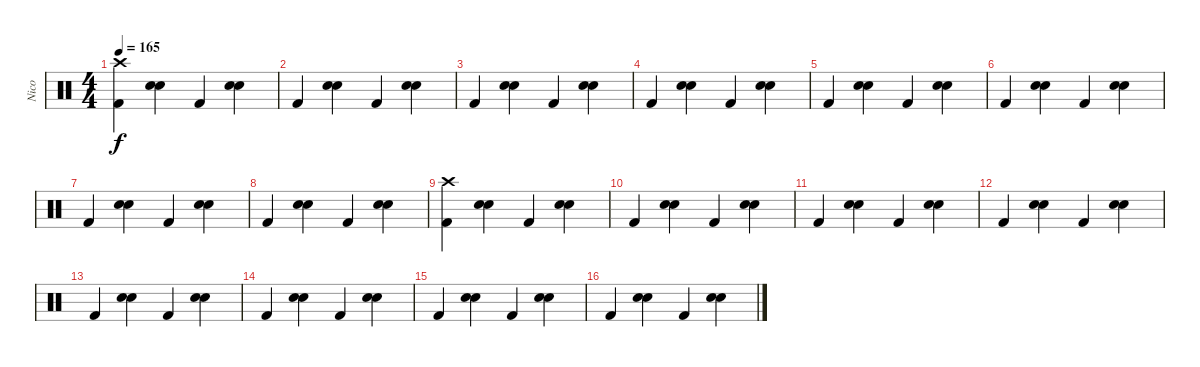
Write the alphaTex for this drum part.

\track ("Nico" "Nico") {instrument percussion}
\staff {score}
\articulation defaults
\ts (4 4)
\tempo 165
\clef neutral
\ks c
("Kick (hit) 2" "Crash high (hit)").4{dy f} ("Electric Snare (hit)" "Electric Snare (hit)").4{bd 240} "Kick (hit) 2".4 ("Electric Snare (hit)" "Electric Snare (hit)").4{bd 240} |
"Kick (hit) 2".4 ("Electric Snare (hit)" "Electric Snare (hit)").4{bd 240} "Kick (hit) 2".4 ("Electric Snare (hit)" "Electric Snare (hit)").4{bd 240} |
"Kick (hit) 2".4 ("Electric Snare (hit)" "Electric Snare (hit)").4{bd 240} "Kick (hit) 2".4 ("Electric Snare (hit)" "Electric Snare (hit)").4{bd 240} |
"Kick (hit) 2".4 ("Electric Snare (hit)" "Electric Snare (hit)").4{bd 240} "Kick (hit) 2".4 ("Electric Snare (hit)" "Electric Snare (hit)").4{bd 240} |
"Kick (hit) 2".4 ("Electric Snare (hit)" "Electric Snare (hit)").4{bd 240} "Kick (hit) 2".4 ("Electric Snare (hit)" "Electric Snare (hit)").4{bd 240} |
"Kick (hit) 2".4 ("Electric Snare (hit)" "Electric Snare (hit)").4{bd 240} "Kick (hit) 2".4 ("Electric Snare (hit)" "Electric Snare (hit)").4{bd 240} |
"Kick (hit) 2".4 ("Electric Snare (hit)" "Electric Snare (hit)").4{bd 240} "Kick (hit) 2".4 ("Electric Snare (hit)" "Electric Snare (hit)").4{bd 240} |
"Kick (hit) 2".4 ("Electric Snare (hit)" "Electric Snare (hit)").4{bd 240} "Kick (hit) 2".4 ("Electric Snare (hit)" "Electric Snare (hit)").4{bd 240} |
("Kick (hit) 2" "Crash high (hit)").4 ("Electric Snare (hit)" "Electric Snare (hit)").4{bd 240} "Kick (hit) 2".4 ("Electric Snare (hit)" "Electric Snare (hit)").4{bd 240} |
"Kick (hit) 2".4 ("Electric Snare (hit)" "Electric Snare (hit)").4{bd 240} "Kick (hit) 2".4 ("Electric Snare (hit)" "Electric Snare (hit)").4{bd 240} |
"Kick (hit) 2".4 ("Electric Snare (hit)" "Electric Snare (hit)").4{bd 240} "Kick (hit) 2".4 ("Electric Snare (hit)" "Electric Snare (hit)").4{bd 240} |
"Kick (hit) 2".4 ("Electric Snare (hit)" "Electric Snare (hit)").4{bd 240} "Kick (hit) 2".4 ("Electric Snare (hit)" "Electric Snare (hit)").4{bd 240} |
"Kick (hit) 2".4 ("Electric Snare (hit)" "Electric Snare (hit)").4{bd 240} "Kick (hit) 2".4 ("Electric Snare (hit)" "Electric Snare (hit)").4{bd 240} |
"Kick (hit) 2".4 ("Electric Snare (hit)" "Electric Snare (hit)").4{bd 240} "Kick (hit) 2".4 ("Electric Snare (hit)" "Electric Snare (hit)").4{bd 240} |
"Kick (hit) 2".4 ("Electric Snare (hit)" "Electric Snare (hit)").4{bd 240} "Kick (hit) 2".4 ("Electric Snare (hit)" "Electric Snare (hit)").4{bd 240} |
"Kick (hit) 2".4 ("Electric Snare (hit)" "Electric Snare (hit)").4{bd 240} "Kick (hit) 2".4 ("Electric Snare (hit)" "Electric Snare (hit)").4{bd 240}
